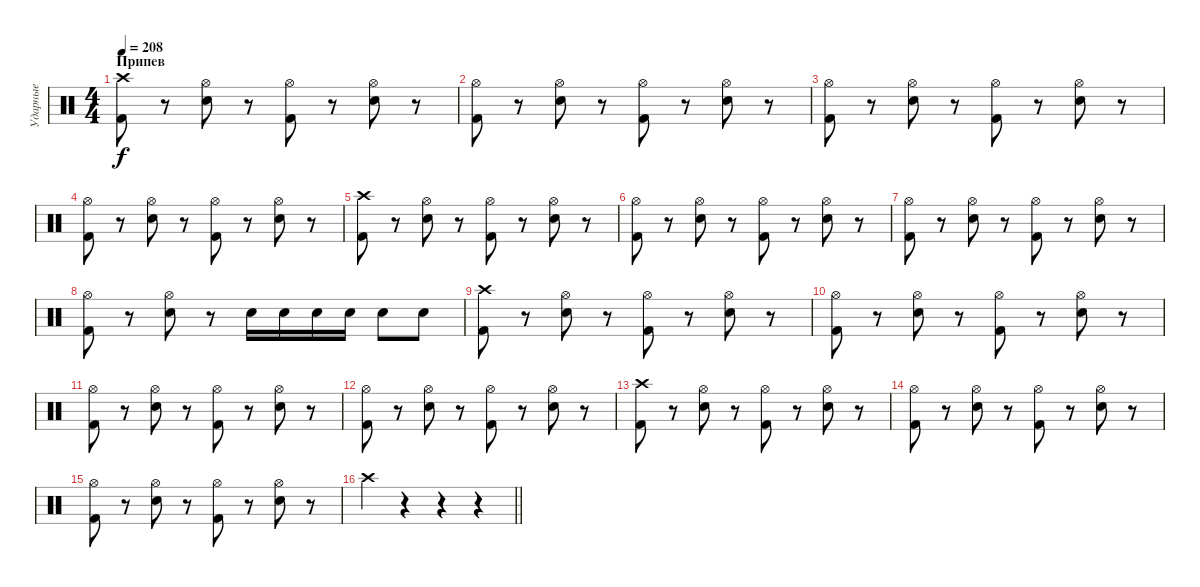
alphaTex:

\track ("Ударные" "Ударные") {instrument percussion}
\staff {score}
\articulation defaults
\ts (4 4)
\section ("" "Припев")
\tempo 208
\clef neutral
\ks c
("Crash high (hit)" "Kick (hit) 2").8{dy f} r.8 ("Hi-Hat (open)" "Electric Snare (hit)").8 r.8 ("Hi-Hat (open)" "Kick (hit) 2").8 r.8 ("Hi-Hat (open)" "Electric Snare (hit)").8 r.8 |
("Hi-Hat (open)" "Kick (hit) 2").8 r.8 ("Hi-Hat (open)" "Electric Snare (hit)").8 r.8 ("Hi-Hat (open)" "Kick (hit) 2").8 r.8 ("Hi-Hat (open)" "Electric Snare (hit)").8 r.8 |
("Hi-Hat (open)" "Kick (hit) 2").8 r.8 ("Hi-Hat (open)" "Electric Snare (hit)").8 r.8 ("Hi-Hat (open)" "Kick (hit) 2").8 r.8 ("Hi-Hat (open)" "Electric Snare (hit)").8 r.8 |
("Hi-Hat (open)" "Kick (hit) 2").8 r.8 ("Hi-Hat (open)" "Electric Snare (hit)").8 r.8 ("Hi-Hat (open)" "Kick (hit) 2").8 r.8 ("Hi-Hat (open)" "Electric Snare (hit)").8 r.8 |
("Crash high (hit)" "Kick (hit) 2").8 r.8 ("Hi-Hat (open)" "Electric Snare (hit)").8 r.8 ("Hi-Hat (open)" "Kick (hit) 2").8 r.8 ("Hi-Hat (open)" "Electric Snare (hit)").8 r.8 |
("Hi-Hat (open)" "Kick (hit) 2").8 r.8 ("Hi-Hat (open)" "Electric Snare (hit)").8 r.8 ("Hi-Hat (open)" "Kick (hit) 2").8 r.8 ("Hi-Hat (open)" "Electric Snare (hit)").8 r.8 |
("Hi-Hat (open)" "Kick (hit) 2").8 r.8 ("Hi-Hat (open)" "Electric Snare (hit)").8 r.8 ("Hi-Hat (open)" "Kick (hit) 2").8 r.8 ("Hi-Hat (open)" "Electric Snare (hit)").8 r.8 |
("Hi-Hat (open)" "Kick (hit) 2").8 r.8 ("Hi-Hat (open)" "Electric Snare (hit)").8 r.8 "Electric Snare (hit)".16 "Electric Snare (hit)".16 "Electric Snare (hit)".16 "Electric Snare (hit)".16 "Electric Snare (hit)".8 "Electric Snare (hit)".8 |
("Crash high (hit)" "Kick (hit) 2").8 r.8 ("Hi-Hat (open)" "Electric Snare (hit)").8 r.8 ("Hi-Hat (open)" "Kick (hit) 2").8 r.8 ("Hi-Hat (open)" "Electric Snare (hit)").8 r.8 |
("Hi-Hat (open)" "Kick (hit) 2").8 r.8 ("Hi-Hat (open)" "Electric Snare (hit)").8 r.8 ("Hi-Hat (open)" "Kick (hit) 2").8 r.8 ("Hi-Hat (open)" "Electric Snare (hit)").8 r.8 |
("Hi-Hat (open)" "Kick (hit) 2").8 r.8 ("Hi-Hat (open)" "Electric Snare (hit)").8 r.8 ("Hi-Hat (open)" "Kick (hit) 2").8 r.8 ("Hi-Hat (open)" "Electric Snare (hit)").8 r.8 |
("Hi-Hat (open)" "Kick (hit) 2").8 r.8 ("Hi-Hat (open)" "Electric Snare (hit)").8 r.8 ("Hi-Hat (open)" "Kick (hit) 2").8 r.8 ("Hi-Hat (open)" "Electric Snare (hit)").8 r.8 |
("Crash high (hit)" "Kick (hit) 2").8 r.8 ("Hi-Hat (open)" "Electric Snare (hit)").8 r.8 ("Hi-Hat (open)" "Kick (hit) 2").8 r.8 ("Hi-Hat (open)" "Electric Snare (hit)").8 r.8 |
("Hi-Hat (open)" "Kick (hit) 2").8 r.8 ("Hi-Hat (open)" "Electric Snare (hit)").8 r.8 ("Hi-Hat (open)" "Kick (hit) 2").8 r.8 ("Hi-Hat (open)" "Electric Snare (hit)").8 r.8 |
("Hi-Hat (open)" "Kick (hit) 2").8 r.8 ("Hi-Hat (open)" "Electric Snare (hit)").8 r.8 ("Hi-Hat (open)" "Kick (hit) 2").8 r.8 ("Hi-Hat (open)" "Electric Snare (hit)").8 r.8 |
\barLineRight lightlight "Crash high (hit)".4
r.4 r.4 r.4
